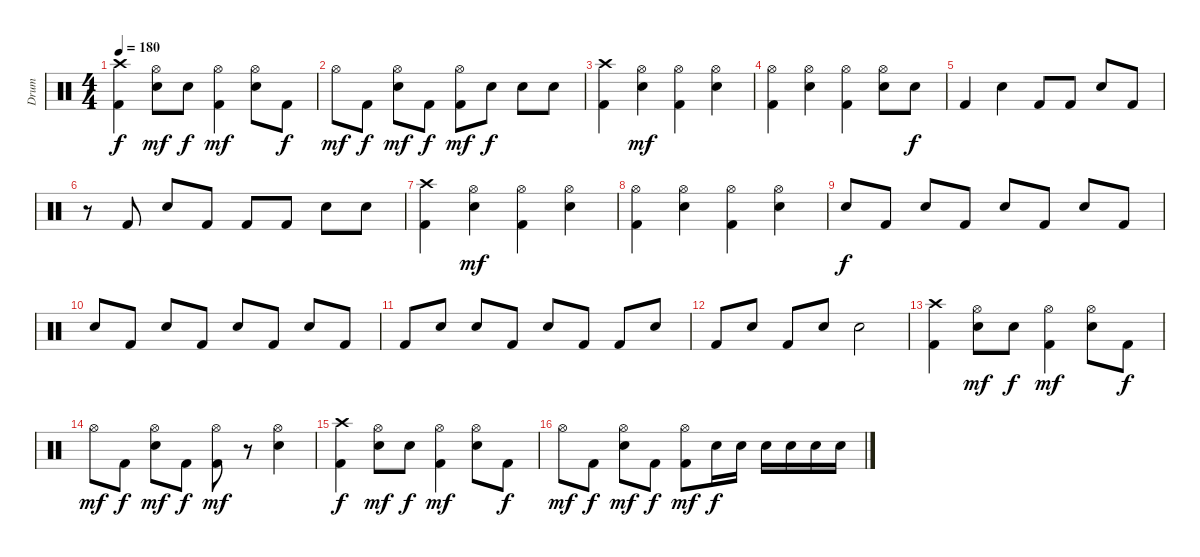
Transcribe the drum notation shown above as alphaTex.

\track ("Drum" "Drum") {instrument percussion}
\staff {score}
\articulation defaults
\ts (4 4)
\tempo 180
\clef neutral
\ks c
("Crash high (hit)" "Kick (hit) 2").4{dy f volume 16} ("Hi-Hat (open)" "Electric Snare (hit)").8{dy mf} "Electric Snare (hit)".8{dy f} ("Hi-Hat (open)" "Kick (hit) 2").4{dy mf} ("Hi-Hat (open)" "Electric Snare (hit)").8 "Kick (hit) 2".8{dy f} |
"Hi-Hat (open)".8{dy mf} "Kick (hit) 2".8{dy f} ("Hi-Hat (open)" "Electric Snare (hit)").8{dy mf} "Kick (hit) 2".8{dy f} ("Hi-Hat (open)" "Kick (hit) 2").8{dy mf} "Electric Snare (hit)".8{dy f} "Electric Snare (hit)".8 "Electric Snare (hit)".8 |
("Crash high (hit)" "Kick (hit) 2").4 ("Hi-Hat (open)" "Electric Snare (hit)").4{dy mf} ("Hi-Hat (open)" "Kick (hit) 2").4 ("Hi-Hat (open)" "Electric Snare (hit)").4 |
("Hi-Hat (open)" "Kick (hit) 2").4 ("Hi-Hat (open)" "Electric Snare (hit)").4 ("Hi-Hat (open)" "Kick (hit) 2").4 ("Hi-Hat (open)" "Electric Snare (hit)").8 "Electric Snare (hit)".8{dy f} |
"Kick (hit) 2".4 "Electric Snare (hit)".4 "Kick (hit) 2".8 "Kick (hit) 2".8 "Electric Snare (hit)".8 "Kick (hit) 2".8 |
r.8 "Kick (hit) 2".8 "Electric Snare (hit)".8 "Kick (hit) 2".8 "Kick (hit) 2".8 "Kick (hit) 2".8 "Electric Snare (hit)".8 "Electric Snare (hit)".8 |
("Crash high (hit)" "Kick (hit) 2").4 ("Hi-Hat (open)" "Electric Snare (hit)").4{dy mf} ("Hi-Hat (open)" "Kick (hit) 2").4 ("Hi-Hat (open)" "Electric Snare (hit)").4 |
("Hi-Hat (open)" "Kick (hit) 2").4 ("Hi-Hat (open)" "Electric Snare (hit)").4 ("Hi-Hat (open)" "Kick (hit) 2").4 ("Hi-Hat (open)" "Electric Snare (hit)").4 |
"Electric Snare (hit)".8{dy f} "Kick (hit) 2".8 "Electric Snare (hit)".8 "Kick (hit) 2".8 "Electric Snare (hit)".8 "Kick (hit) 2".8 "Electric Snare (hit)".8 "Kick (hit) 2".8 |
"Electric Snare (hit)".8 "Kick (hit) 2".8 "Electric Snare (hit)".8 "Kick (hit) 2".8 "Electric Snare (hit)".8 "Kick (hit) 2".8 "Electric Snare (hit)".8 "Kick (hit) 2".8 |
"Kick (hit) 2".8 "Electric Snare (hit)".8 "Electric Snare (hit)".8 "Kick (hit) 2".8 "Electric Snare (hit)".8 "Kick (hit) 2".8 "Kick (hit) 2".8 "Electric Snare (hit)".8 |
"Kick (hit) 2".8 "Electric Snare (hit)".8 "Kick (hit) 2".8 "Electric Snare (hit)".8 "Electric Snare (hit)".2 |
("Crash high (hit)" "Kick (hit) 2").4{volume 16} ("Hi-Hat (open)" "Electric Snare (hit)").8{dy mf} "Electric Snare (hit)".8{dy f} ("Hi-Hat (open)" "Kick (hit) 2").4{dy mf} ("Hi-Hat (open)" "Electric Snare (hit)").8 "Kick (hit) 2".8{dy f} |
"Hi-Hat (open)".8{dy mf} "Kick (hit) 2".8{dy f} ("Hi-Hat (open)" "Electric Snare (hit)").8{dy mf} "Kick (hit) 2".8{dy f} ("Hi-Hat (open)" "Kick (hit) 2").8{dy mf} r.8 ("Hi-Hat (open)" "Electric Snare (hit)").4 |
("Crash high (hit)" "Kick (hit) 2").4{dy f volume 16} ("Hi-Hat (open)" "Electric Snare (hit)").8{dy mf} "Electric Snare (hit)".8{dy f} ("Hi-Hat (open)" "Kick (hit) 2").4{dy mf} ("Hi-Hat (open)" "Electric Snare (hit)").8 "Kick (hit) 2".8{dy f} |
"Hi-Hat (open)".8{dy mf} "Kick (hit) 2".8{dy f} ("Hi-Hat (open)" "Electric Snare (hit)").8{dy mf} "Kick (hit) 2".8{dy f} ("Hi-Hat (open)" "Kick (hit) 2").8{dy mf} "Electric Snare (hit)".16{dy f} "Electric Snare (hit)".16 "Electric Snare (hit)".16 "Electric Snare (hit)".16 "Electric Snare (hit)".16 "Electric Snare (hit)".16
